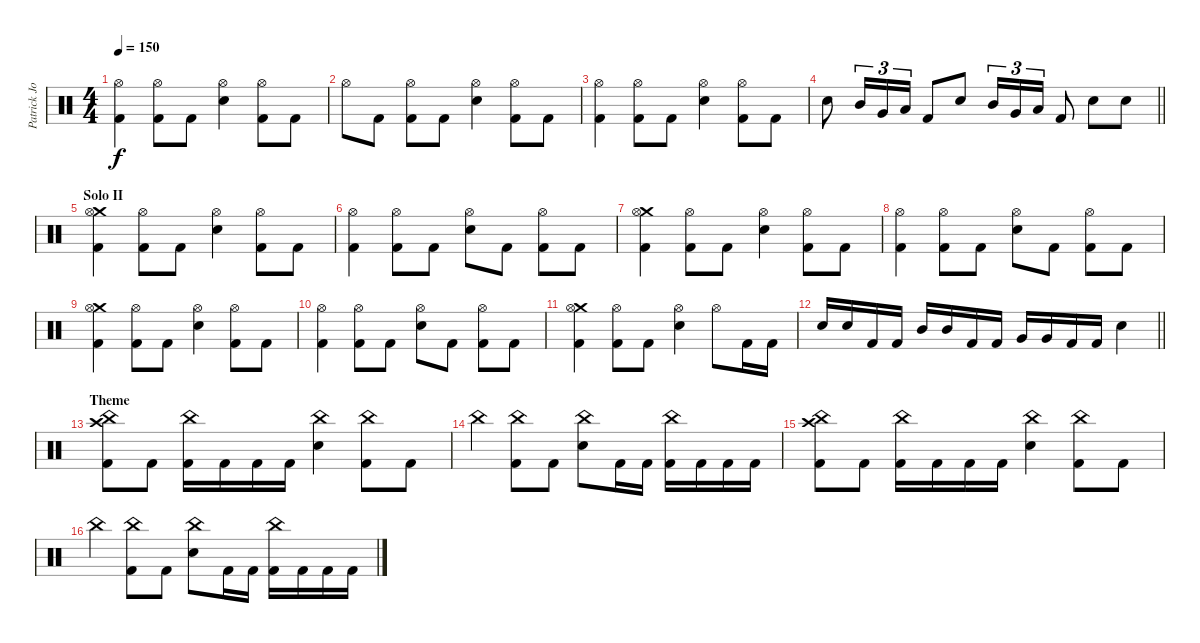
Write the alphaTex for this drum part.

\track ("Patrick Johansson" "Patrick Jo") {instrument percussion}
\staff {score}
\articulation defaults
\ts (4 4)
\tempo 150
\clef neutral
\ks c
("Hi-Hat (open)" "Kick (hit) 2").4{dy f} ("Hi-Hat (open)" "Kick (hit) 2").8 "Kick (hit) 2".8 ("Hi-Hat (open)" "Snare (hit) 2").4 ("Hi-Hat (open)" "Kick (hit) 2").8 "Kick (hit) 2".8 |
"Hi-Hat (open)".8 "Kick (hit) 2".8 ("Hi-Hat (open)" "Kick (hit) 2").8 "Kick (hit) 2".8 ("Hi-Hat (open)" "Snare (hit) 2").4 ("Hi-Hat (open)" "Kick (hit) 2").8 "Kick (hit) 2".8 |
("Hi-Hat (open)" "Kick (hit) 2").4 ("Hi-Hat (open)" "Kick (hit) 2").8 "Kick (hit) 2".8 ("Hi-Hat (open)" "Snare (hit) 2").4 ("Hi-Hat (open)" "Kick (hit) 2").8 "Kick (hit) 2".8 |
\barLineRight lightlight "Snare (hit) 2".8 "Mid Tom (hit)".16{tu (3 2)} "Very Low Tom (hit)".16{tu (3 2)} "Low Tom (hit)".16{tu (3 2)} "Kick (hit) 2".8 "Snare (hit) 2".8 "Mid Tom (hit)".16{tu (3 2)} "Very Low Tom (hit)".16{tu (3 2)} "Low Tom (hit)".16{tu (3 2)} "Kick (hit) 2".8 "Snare (hit) 2".8 "Snare (hit) 2".8
|
\section ("" "Solo II")
("Crash medium (hit)" "Hi-Hat (open)" "Kick (hit) 2").4 ("Hi-Hat (open)" "Kick (hit) 2").8 "Kick (hit) 2".8 ("Hi-Hat (open)" "Snare (hit) 2").4 ("Hi-Hat (open)" "Kick (hit) 2").8 "Kick (hit) 2".8 |
("Hi-Hat (open)" "Kick (hit) 2").4 ("Hi-Hat (open)" "Kick (hit) 2").8 "Kick (hit) 2".8 ("Hi-Hat (open)" "Snare (hit) 2").8 "Kick (hit) 2".8 ("Hi-Hat (open)" "Kick (hit) 2").8 "Kick (hit) 2".8 |
("Crash medium (hit)" "Hi-Hat (open)" "Kick (hit) 2").4 ("Hi-Hat (open)" "Kick (hit) 2").8 "Kick (hit) 2".8 ("Hi-Hat (open)" "Snare (hit) 2").4 ("Hi-Hat (open)" "Kick (hit) 2").8 "Kick (hit) 2".8 |
("Hi-Hat (open)" "Kick (hit) 2").4 ("Hi-Hat (open)" "Kick (hit) 2").8 "Kick (hit) 2".8 ("Hi-Hat (open)" "Snare (hit) 2").8 "Kick (hit) 2".8 ("Hi-Hat (open)" "Kick (hit) 2").8 "Kick (hit) 2".8 |
("Crash medium (hit)" "Hi-Hat (open)" "Kick (hit) 2").4 ("Hi-Hat (open)" "Kick (hit) 2").8 "Kick (hit) 2".8 ("Hi-Hat (open)" "Snare (hit) 2").4 ("Hi-Hat (open)" "Kick (hit) 2").8 "Kick (hit) 2".8 |
("Hi-Hat (open)" "Kick (hit) 2").4 ("Hi-Hat (open)" "Kick (hit) 2").8 "Kick (hit) 2".8 ("Hi-Hat (open)" "Snare (hit) 2").8 "Kick (hit) 2".8 ("Hi-Hat (open)" "Kick (hit) 2").8 "Kick (hit) 2".8 |
("Crash medium (hit)" "Hi-Hat (open)" "Kick (hit) 2").4 ("Hi-Hat (open)" "Kick (hit) 2").8 "Kick (hit) 2".8 ("Hi-Hat (open)" "Snare (hit) 2").4 "Hi-Hat (open)".8 "Kick (hit) 2".16 "Kick (hit) 2".16 |
\barLineRight lightlight "Snare (hit) 2".16 "Snare (hit) 2".16 "Kick (hit) 2".16 "Kick (hit) 2".16 "Mid Tom (hit)".16 "Mid Tom (hit)".16 "Kick (hit) 2".16 "Kick (hit) 2".16 "Very Low Tom (hit)".16 "Very Low Tom (hit)".16 "Kick (hit) 2".16 "Kick (hit) 2".16 "Snare (hit) 2".4
|
\section ("" "Theme")
("Crash high (hit)" "China (hit)" "Kick (hit) 2").8 "Kick (hit) 2".8 ("China (hit)" "Kick (hit) 2").16 "Kick (hit) 2".16 "Kick (hit) 2".16 "Kick (hit) 2".16 ("China (hit)" "Snare (hit) 2").4 ("China (hit)" "Kick (hit) 2").8 "Kick (hit) 2".8 |
"China (hit)".4 ("China (hit)" "Kick (hit) 2").8 "Kick (hit) 2".8 ("China (hit)" "Snare (hit) 2").8 "Kick (hit) 2".16 "Kick (hit) 2".16 ("China (hit)" "Kick (hit) 2").16 "Kick (hit) 2".16 "Kick (hit) 2".16 "Kick (hit) 2".16 |
("Crash high (hit)" "China (hit)" "Kick (hit) 2").8 "Kick (hit) 2".8 ("China (hit)" "Kick (hit) 2").16 "Kick (hit) 2".16 "Kick (hit) 2".16 "Kick (hit) 2".16 ("China (hit)" "Snare (hit) 2").4 ("China (hit)" "Kick (hit) 2").8 "Kick (hit) 2".8 |
"China (hit)".4 ("China (hit)" "Kick (hit) 2").8 "Kick (hit) 2".8 ("China (hit)" "Snare (hit) 2").8 "Kick (hit) 2".16 "Kick (hit) 2".16 ("China (hit)" "Kick (hit) 2").16 "Kick (hit) 2".16 "Kick (hit) 2".16 "Kick (hit) 2".16
